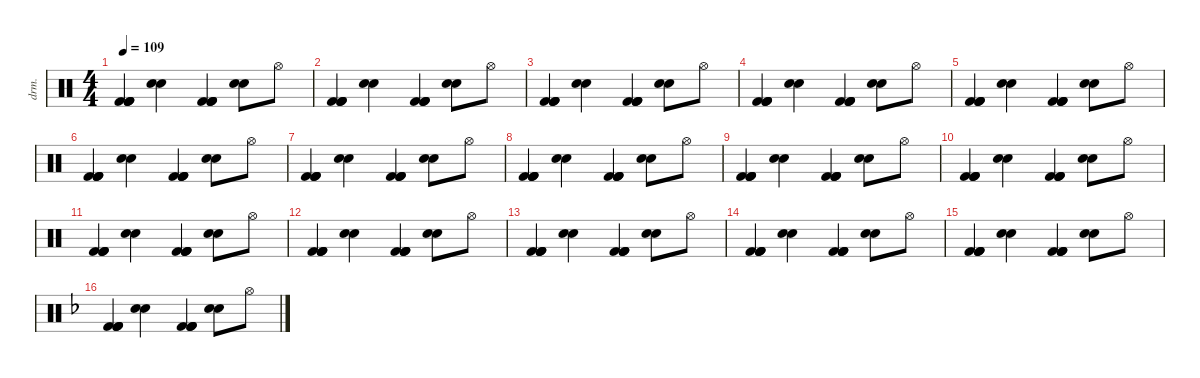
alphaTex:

\defaultSystemsLayout 4
\hideDynamics
\bracketExtendMode nobrackets
\otherSystemsTrackNameOrientation horizontal
\track ("Drums" "drm.") {instrument percussion}
\staff {score}
\articulation defaults
\ts (4 4)
\tempo 109
\clef neutral
\ks c
("Kick (hit) 2" "Kick (hit) 2" "Kick (hit) 2" "Kick (hit) 2").4{dy fff} ("Snare (hit) 2" "Snare (hit) 2").4{dy f} ("Kick (hit) 2" "Kick (hit) 2" "Kick (hit) 2" "Kick (hit) 2").4{dy fff} ("Snare (hit) 2" "Snare (hit) 2").8{dy f} "Hi-Hat (open)".8 |
("Kick (hit) 2" "Kick (hit) 2" "Kick (hit) 2" "Kick (hit) 2").4{dy fff} ("Snare (hit) 2" "Snare (hit) 2").4{dy f} ("Kick (hit) 2" "Kick (hit) 2" "Kick (hit) 2" "Kick (hit) 2").4{dy fff} ("Snare (hit) 2" "Snare (hit) 2").8{dy f} "Hi-Hat (open)".8 |
("Kick (hit) 2" "Kick (hit) 2" "Kick (hit) 2" "Kick (hit) 2").4{dy fff} ("Snare (hit) 2" "Snare (hit) 2").4{dy f} ("Kick (hit) 2" "Kick (hit) 2" "Kick (hit) 2" "Kick (hit) 2").4{dy fff} ("Snare (hit) 2" "Snare (hit) 2").8{dy f} "Hi-Hat (open)".8 |
("Kick (hit) 2" "Kick (hit) 2" "Kick (hit) 2" "Kick (hit) 2").4{dy fff} ("Snare (hit) 2" "Snare (hit) 2").4{dy f} ("Kick (hit) 2" "Kick (hit) 2" "Kick (hit) 2" "Kick (hit) 2").4{dy fff} ("Snare (hit) 2" "Snare (hit) 2").8{dy f} "Hi-Hat (open)".8 |
("Kick (hit) 2" "Kick (hit) 2" "Kick (hit) 2" "Kick (hit) 2").4{dy fff} ("Snare (hit) 2" "Snare (hit) 2").4{dy f} ("Kick (hit) 2" "Kick (hit) 2" "Kick (hit) 2" "Kick (hit) 2").4{dy fff} ("Snare (hit) 2" "Snare (hit) 2").8{dy f} "Hi-Hat (open)".8 |
("Kick (hit) 2" "Kick (hit) 2" "Kick (hit) 2" "Kick (hit) 2").4{dy fff} ("Snare (hit) 2" "Snare (hit) 2").4{dy f} ("Kick (hit) 2" "Kick (hit) 2" "Kick (hit) 2" "Kick (hit) 2").4{dy fff} ("Snare (hit) 2" "Snare (hit) 2").8{dy f} "Hi-Hat (open)".8 |
("Kick (hit) 2" "Kick (hit) 2" "Kick (hit) 2" "Kick (hit) 2").4{dy fff} ("Snare (hit) 2" "Snare (hit) 2").4{dy f} ("Kick (hit) 2" "Kick (hit) 2" "Kick (hit) 2" "Kick (hit) 2").4{dy fff} ("Snare (hit) 2" "Snare (hit) 2").8{dy f} "Hi-Hat (open)".8 |
("Kick (hit) 2" "Kick (hit) 2" "Kick (hit) 2" "Kick (hit) 2").4{dy fff} ("Snare (hit) 2" "Snare (hit) 2").4{dy f} ("Kick (hit) 2" "Kick (hit) 2" "Kick (hit) 2" "Kick (hit) 2").4{dy fff} ("Snare (hit) 2" "Snare (hit) 2").8{dy f} "Hi-Hat (open)".8 |
("Kick (hit) 2" "Kick (hit) 2" "Kick (hit) 2" "Kick (hit) 2").4{dy fff} ("Snare (hit) 2" "Snare (hit) 2").4{dy f} ("Kick (hit) 2" "Kick (hit) 2" "Kick (hit) 2" "Kick (hit) 2").4{dy fff} ("Snare (hit) 2" "Snare (hit) 2").8{dy f} "Hi-Hat (open)".8 |
("Kick (hit) 2" "Kick (hit) 2" "Kick (hit) 2" "Kick (hit) 2").4{dy fff} ("Snare (hit) 2" "Snare (hit) 2").4{dy f} ("Kick (hit) 2" "Kick (hit) 2" "Kick (hit) 2" "Kick (hit) 2").4{dy fff} ("Snare (hit) 2" "Snare (hit) 2").8{dy f} "Hi-Hat (open)".8 |
("Kick (hit) 2" "Kick (hit) 2" "Kick (hit) 2" "Kick (hit) 2").4{dy fff} ("Snare (hit) 2" "Snare (hit) 2").4{dy f} ("Kick (hit) 2" "Kick (hit) 2" "Kick (hit) 2" "Kick (hit) 2").4{dy fff} ("Snare (hit) 2" "Snare (hit) 2").8{dy f} "Hi-Hat (open)".8 |
("Kick (hit) 2" "Kick (hit) 2" "Kick (hit) 2" "Kick (hit) 2").4{dy fff} ("Snare (hit) 2" "Snare (hit) 2").4{dy f} ("Kick (hit) 2" "Kick (hit) 2" "Kick (hit) 2" "Kick (hit) 2").4{dy fff} ("Snare (hit) 2" "Snare (hit) 2").8{dy f} "Hi-Hat (open)".8 |
("Kick (hit) 2" "Kick (hit) 2" "Kick (hit) 2" "Kick (hit) 2").4{dy fff} ("Snare (hit) 2" "Snare (hit) 2").4{dy f} ("Kick (hit) 2" "Kick (hit) 2" "Kick (hit) 2" "Kick (hit) 2").4{dy fff} ("Snare (hit) 2" "Snare (hit) 2").8{dy f} "Hi-Hat (open)".8 |
("Kick (hit) 2" "Kick (hit) 2" "Kick (hit) 2" "Kick (hit) 2").4{dy fff} ("Snare (hit) 2" "Snare (hit) 2").4{dy f} ("Kick (hit) 2" "Kick (hit) 2" "Kick (hit) 2" "Kick (hit) 2").4{dy fff} ("Snare (hit) 2" "Snare (hit) 2").8{dy f} "Hi-Hat (open)".8 |
("Kick (hit) 2" "Kick (hit) 2" "Kick (hit) 2" "Kick (hit) 2").4{dy fff} ("Snare (hit) 2" "Snare (hit) 2").4{dy f} ("Kick (hit) 2" "Kick (hit) 2" "Kick (hit) 2" "Kick (hit) 2").4{dy fff} ("Snare (hit) 2" "Snare (hit) 2").8{dy f} "Hi-Hat (open)".8 |
\ks dminor
("Kick (hit) 2"{acc forcenatural} "Kick (hit) 2"{acc forcenatural} "Kick (hit) 2"{acc forcenatural} "Kick (hit) 2"{acc forcenatural}).4{dy fff} ("Snare (hit) 2"{acc forcenatural} "Snare (hit) 2"{acc forcenatural}).4{dy f} ("Kick (hit) 2"{acc forcenatural} "Kick (hit) 2"{acc forcenatural} "Kick (hit) 2"{acc forcenatural} "Kick (hit) 2"{acc forcenatural}).4{dy fff} ("Snare (hit) 2"{acc forcenatural} "Snare (hit) 2"{acc forcenatural}).8{dy f} "Hi-Hat (open)"{acc forcenatural}.8
